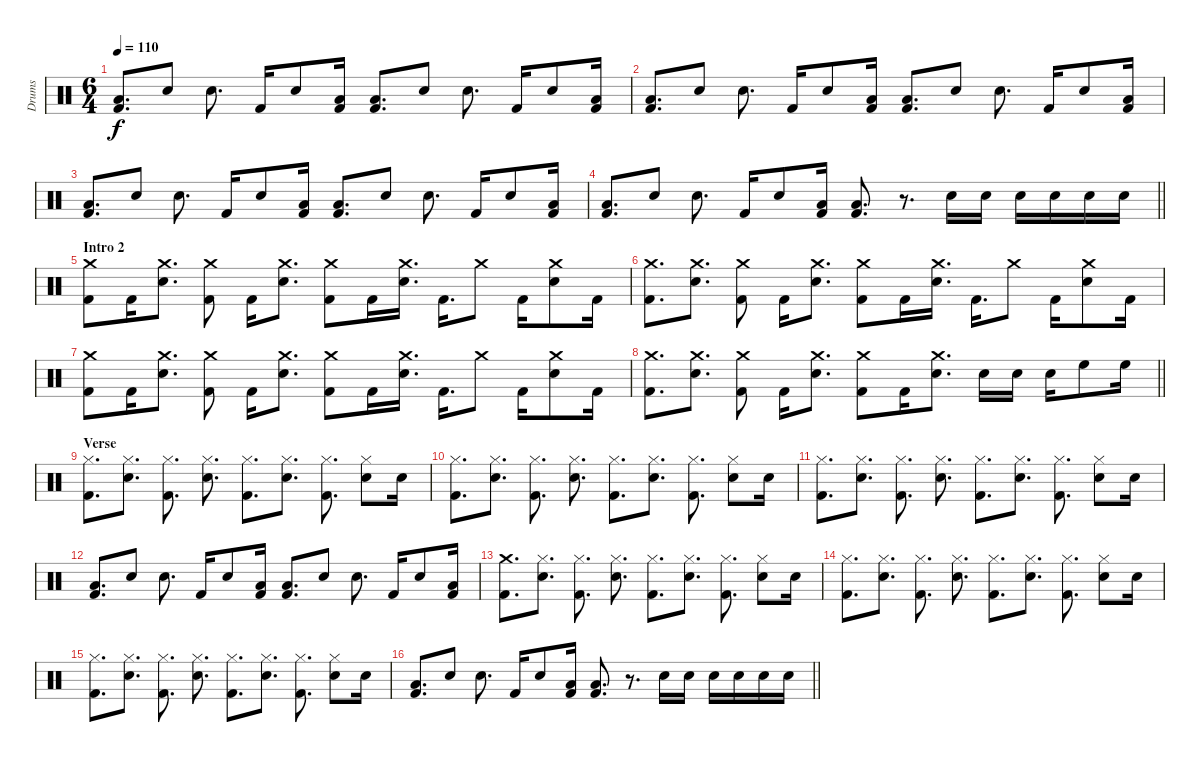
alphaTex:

\track ("Drums" "Drums") {instrument percussion}
\staff {score}
\articulation defaults
\ts (6 4)
\tempo 110
\clef neutral
\ks c
("Low Floor Tom (hit)" "Kick (hit) 2").8{d dy f} "Snare (hit) 2".8 "Snare (hit) 2".8{d} "Kick (hit) 2".16 "Snare (hit) 2".8 ("Low Floor Tom (hit)" "Kick (hit) 2").16 ("Low Floor Tom (hit)" "Kick (hit) 2").8{d} "Snare (hit) 2".8 "Snare (hit) 2".8{d} "Kick (hit) 2".16 "Snare (hit) 2".8 ("Low Floor Tom (hit)" "Kick (hit) 2").16 |
("Low Floor Tom (hit)" "Kick (hit) 2").8{d} "Snare (hit) 2".8 "Snare (hit) 2".8{d} "Kick (hit) 2".16 "Snare (hit) 2".8 ("Low Floor Tom (hit)" "Kick (hit) 2").16 ("Low Floor Tom (hit)" "Kick (hit) 2").8{d} "Snare (hit) 2".8 "Snare (hit) 2".8{d} "Kick (hit) 2".16 "Snare (hit) 2".8 ("Low Floor Tom (hit)" "Kick (hit) 2").16 |
("Low Floor Tom (hit)" "Kick (hit) 2").8{d} "Snare (hit) 2".8 "Snare (hit) 2".8{d} "Kick (hit) 2".16 "Snare (hit) 2".8 ("Low Floor Tom (hit)" "Kick (hit) 2").16 ("Low Floor Tom (hit)" "Kick (hit) 2").8{d} "Snare (hit) 2".8 "Snare (hit) 2".8{d} "Kick (hit) 2".16 "Snare (hit) 2".8 ("Low Floor Tom (hit)" "Kick (hit) 2").16 |
\barLineRight lightlight
("Low Floor Tom (hit)" "Kick (hit) 2").8{d} "Snare (hit) 2".8 "Snare (hit) 2".8{d} "Kick (hit) 2".16 "Snare (hit) 2".8 ("Low Floor Tom (hit)" "Kick (hit) 2").16 ("Low Floor Tom (hit)" "Kick (hit) 2").8{d} r.8{d} "Snare (hit) 2".16 "Snare (hit) 2".16 "Snare (hit) 2".16 "Snare (hit) 2".16 "Snare (hit) 2".16 "Snare (hit) 2".16 |
\section ("" "Intro 2")
("Crash medium (hit)" "Kick (hit) 2").8 "Kick (hit) 2".16 ("Crash medium (hit)" "Snare (hit) 2").8{d} ("Crash medium (hit)" "Kick (hit) 2").8 "Kick (hit) 2".16 ("Crash medium (hit)" "Snare (hit) 2").8{d} ("Crash medium (hit)" "Kick (hit) 2").8 "Kick (hit) 2".16 ("Crash medium (hit)" "Snare (hit) 2").16{d} "Kick (hit) 2".16{d} "Crash medium (hit)".8 "Kick (hit) 2".16 ("Crash medium (hit)" "Snare (hit) 2").8 "Kick (hit) 2".16 |
("Crash medium (hit)" "Kick (hit) 2").8{d} ("Crash medium (hit)" "Snare (hit) 2").8{d} ("Crash medium (hit)" "Kick (hit) 2").8 "Kick (hit) 2".16 ("Crash medium (hit)" "Snare (hit) 2").8{d} ("Crash medium (hit)" "Kick (hit) 2").8 "Kick (hit) 2".16 ("Crash medium (hit)" "Snare (hit) 2").16{d} "Kick (hit) 2".16{d} "Crash medium (hit)".8 "Kick (hit) 2".16 ("Crash medium (hit)" "Snare (hit) 2").8 "Kick (hit) 2".16 |
("Crash medium (hit)" "Kick (hit) 2").8 "Kick (hit) 2".16 ("Crash medium (hit)" "Snare (hit) 2").8{d} ("Crash medium (hit)" "Kick (hit) 2").8 "Kick (hit) 2".16 ("Crash medium (hit)" "Snare (hit) 2").8{d} ("Crash medium (hit)" "Kick (hit) 2").8 "Kick (hit) 2".16 ("Crash medium (hit)" "Snare (hit) 2").16{d} "Kick (hit) 2".16{d} "Crash medium (hit)".8 "Kick (hit) 2".16 ("Crash medium (hit)" "Snare (hit) 2").8 "Kick (hit) 2".16 |
\barLineRight lightlight
("Crash medium (hit)" "Kick (hit) 2").8{d} ("Crash medium (hit)" "Snare (hit) 2").8{d} ("Crash medium (hit)" "Kick (hit) 2").8 "Kick (hit) 2".16 ("Crash medium (hit)" "Snare (hit) 2").8{d} ("Crash medium (hit)" "Kick (hit) 2").8 "Kick (hit) 2".16 ("Crash medium (hit)" "Snare (hit) 2").8{d} "Snare (hit) 2".16 "Snare (hit) 2".16 "Snare (hit) 2".16 "High Floor Tom (hit)".8 "High Floor Tom (hit)".16 |
\section ("" "Verse")
("Hi-Hat (closed)" "Kick (hit) 2").8{d} ("Hi-Hat (closed)" "Snare (hit) 2").8{d} ("Hi-Hat (closed)" "Kick (hit) 2").8{d} ("Hi-Hat (closed)" "Snare (hit) 2").8{d} ("Hi-Hat (closed)" "Kick (hit) 2").8{d} ("Hi-Hat (closed)" "Snare (hit) 2").8{d} ("Hi-Hat (closed)" "Kick (hit) 2").8{d} ("Hi-Hat (closed)" "Snare (hit) 2").8 "Snare (hit) 2".16 |
("Hi-Hat (closed)" "Kick (hit) 2").8{d} ("Hi-Hat (closed)" "Snare (hit) 2").8{d} ("Hi-Hat (closed)" "Kick (hit) 2").8{d} ("Hi-Hat (closed)" "Snare (hit) 2").8{d} ("Hi-Hat (closed)" "Kick (hit) 2").8{d} ("Hi-Hat (closed)" "Snare (hit) 2").8{d} ("Hi-Hat (closed)" "Kick (hit) 2").8{d} ("Hi-Hat (closed)" "Snare (hit) 2").8 "Snare (hit) 2".16 |
("Hi-Hat (closed)" "Kick (hit) 2").8{d} ("Hi-Hat (closed)" "Snare (hit) 2").8{d} ("Hi-Hat (closed)" "Kick (hit) 2").8{d} ("Hi-Hat (closed)" "Snare (hit) 2").8{d} ("Hi-Hat (closed)" "Kick (hit) 2").8{d} ("Hi-Hat (closed)" "Snare (hit) 2").8{d} ("Hi-Hat (closed)" "Kick (hit) 2").8{d} ("Hi-Hat (closed)" "Snare (hit) 2").8 "Snare (hit) 2".16 |
("Low Floor Tom (hit)" "Kick (hit) 2").8{d} "Snare (hit) 2".8 "Snare (hit) 2".8{d} "Kick (hit) 2".16 "Snare (hit) 2".8 ("Low Floor Tom (hit)" "Kick (hit) 2").16 ("Low Floor Tom (hit)" "Kick (hit) 2").8{d} "Snare (hit) 2".8 "Snare (hit) 2".8{d} "Kick (hit) 2".16 "Snare (hit) 2".8 ("Low Floor Tom (hit)" "Kick (hit) 2").16 |
("Crash medium (hit)" "Kick (hit) 2").8{d} ("Hi-Hat (closed)" "Snare (hit) 2").8{d} ("Hi-Hat (closed)" "Kick (hit) 2").8{d} ("Hi-Hat (closed)" "Snare (hit) 2").8{d} ("Hi-Hat (closed)" "Kick (hit) 2").8{d} ("Hi-Hat (closed)" "Snare (hit) 2").8{d} ("Hi-Hat (closed)" "Kick (hit) 2").8{d} ("Hi-Hat (closed)" "Snare (hit) 2").8 "Snare (hit) 2".16 |
("Hi-Hat (closed)" "Kick (hit) 2").8{d} ("Hi-Hat (closed)" "Snare (hit) 2").8{d} ("Hi-Hat (closed)" "Kick (hit) 2").8{d} ("Hi-Hat (closed)" "Snare (hit) 2").8{d} ("Hi-Hat (closed)" "Kick (hit) 2").8{d} ("Hi-Hat (closed)" "Snare (hit) 2").8{d} ("Hi-Hat (closed)" "Kick (hit) 2").8{d} ("Hi-Hat (closed)" "Snare (hit) 2").8 "Snare (hit) 2".16 |
("Hi-Hat (closed)" "Kick (hit) 2").8{d} ("Hi-Hat (closed)" "Snare (hit) 2").8{d} ("Hi-Hat (closed)" "Kick (hit) 2").8{d} ("Hi-Hat (closed)" "Snare (hit) 2").8{d} ("Hi-Hat (closed)" "Kick (hit) 2").8{d} ("Hi-Hat (closed)" "Snare (hit) 2").8{d} ("Hi-Hat (closed)" "Kick (hit) 2").8{d} ("Hi-Hat (closed)" "Snare (hit) 2").8 "Snare (hit) 2".16 |
\barLineRight lightlight
("Low Floor Tom (hit)" "Kick (hit) 2").8{d} "Snare (hit) 2".8 "Snare (hit) 2".8{d} "Kick (hit) 2".16 "Snare (hit) 2".8 ("Low Floor Tom (hit)" "Kick (hit) 2").16 ("Low Floor Tom (hit)" "Kick (hit) 2").8{d} r.8{d} "Snare (hit) 2".16 "Snare (hit) 2".16 "Snare (hit) 2".16 "Snare (hit) 2".16 "Snare (hit) 2".16 "Snare (hit) 2".16
